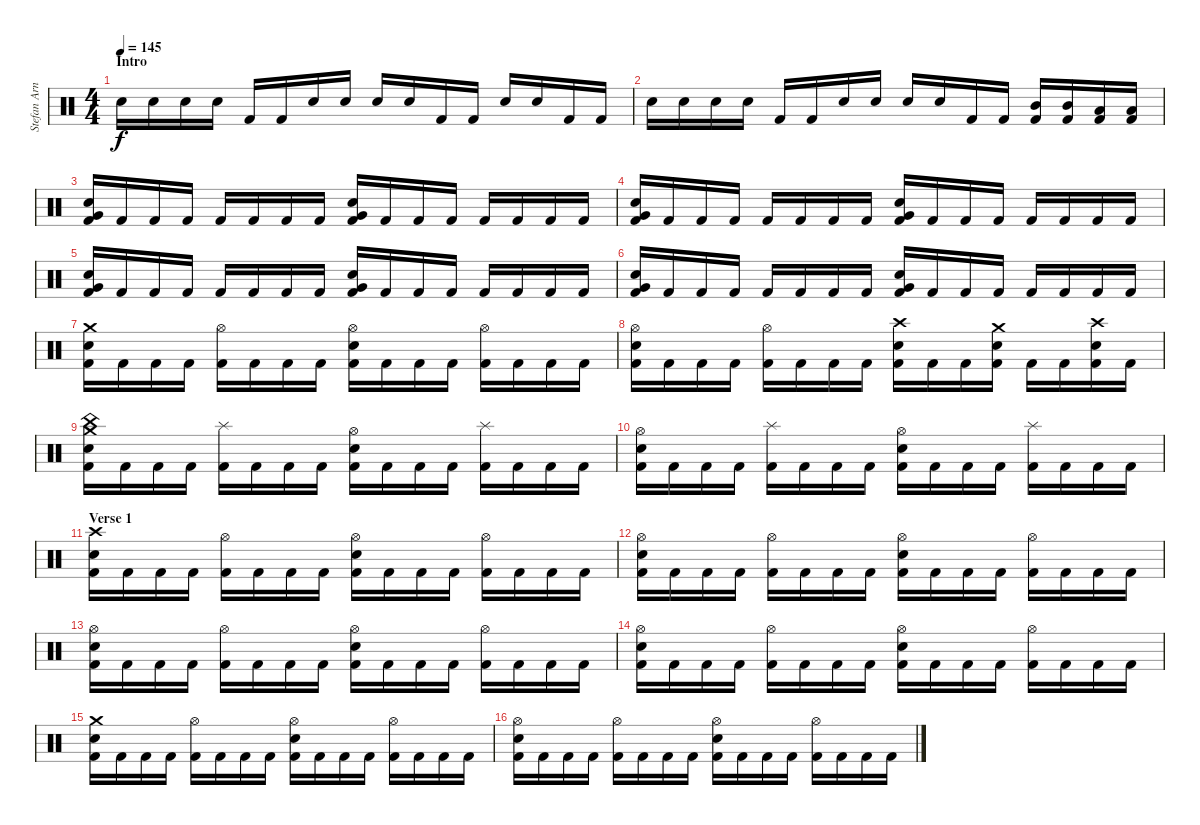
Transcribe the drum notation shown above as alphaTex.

\track ("Stefan Arnold" "Stefan Arn") {instrument percussion}
\staff {score}
\articulation defaults
\ts (4 4)
\section ("" "Intro")
\tempo 145
\clef neutral
\ks c "Electric Snare (hit)".16{dy f} "Electric Snare (hit)".16 "Electric Snare (hit)".16 "Electric Snare (hit)".16 "Kick (hit) 2".16 "Kick (hit) 2".16 "Electric Snare (hit)".16 "Electric Snare (hit)".16 "Electric Snare (hit)".16 "Electric Snare (hit)".16 "Kick (hit) 2".16 "Kick (hit) 2".16 "Electric Snare (hit)".16 "Electric Snare (hit)".16 "Kick (hit) 2".16 "Kick (hit) 2".16
|
"Electric Snare (hit)".16 "Electric Snare (hit)".16 "Electric Snare (hit)".16 "Electric Snare (hit)".16 "Kick (hit) 2".16 "Kick (hit) 2".16 "Electric Snare (hit)".16 "Electric Snare (hit)".16 "Electric Snare (hit)".16 "Electric Snare (hit)".16 "Kick (hit) 2".16 "Kick (hit) 2".16 ("Mid Tom (hit)" "Kick (hit) 2").16 ("Mid Tom (hit)" "Kick (hit) 2").16 ("Low Tom (hit)" "Kick (hit) 2").16 ("Low Tom (hit)" "Kick (hit) 2").16 |
("Very Low Tom (hit)" "Electric Snare (hit)" "Kick (hit) 2").16 "Kick (hit) 2".16 "Kick (hit) 2".16 "Kick (hit) 2".16 "Kick (hit) 2".16 "Kick (hit) 2".16 "Kick (hit) 2".16 "Kick (hit) 2".16 ("Very Low Tom (hit)" "Electric Snare (hit)" "Kick (hit) 2").16 "Kick (hit) 2".16 "Kick (hit) 2".16 "Kick (hit) 2".16 "Kick (hit) 2".16 "Kick (hit) 2".16 "Kick (hit) 2".16 "Kick (hit) 2".16 |
("Very Low Tom (hit)" "Electric Snare (hit)" "Kick (hit) 2").16 "Kick (hit) 2".16 "Kick (hit) 2".16 "Kick (hit) 2".16 "Kick (hit) 2".16 "Kick (hit) 2".16 "Kick (hit) 2".16 "Kick (hit) 2".16 ("Very Low Tom (hit)" "Electric Snare (hit)" "Kick (hit) 2").16 "Kick (hit) 2".16 "Kick (hit) 2".16 "Kick (hit) 2".16 "Kick (hit) 2".16 "Kick (hit) 2".16 "Kick (hit) 2".16 "Kick (hit) 2".16 |
("Very Low Tom (hit)" "Electric Snare (hit)" "Kick (hit) 2").16 "Kick (hit) 2".16 "Kick (hit) 2".16 "Kick (hit) 2".16 "Kick (hit) 2".16 "Kick (hit) 2".16 "Kick (hit) 2".16 "Kick (hit) 2".16 ("Very Low Tom (hit)" "Electric Snare (hit)" "Kick (hit) 2").16 "Kick (hit) 2".16 "Kick (hit) 2".16 "Kick (hit) 2".16 "Kick (hit) 2".16 "Kick (hit) 2".16 "Kick (hit) 2".16 "Kick (hit) 2".16 |
("Very Low Tom (hit)" "Electric Snare (hit)" "Kick (hit) 2").16 "Kick (hit) 2".16 "Kick (hit) 2".16 "Kick (hit) 2".16 "Kick (hit) 2".16 "Kick (hit) 2".16 "Kick (hit) 2".16 "Kick (hit) 2".16 ("Very Low Tom (hit)" "Electric Snare (hit)" "Kick (hit) 2").16 "Kick (hit) 2".16 "Kick (hit) 2".16 "Kick (hit) 2".16 "Kick (hit) 2".16 "Kick (hit) 2".16 "Kick (hit) 2".16 "Kick (hit) 2".16 |
("Crash medium (hit)" "Electric Snare (hit)" "Kick (hit) 2").16 "Kick (hit) 2".16 "Kick (hit) 2".16 "Kick (hit) 2".16 ("Hi-Hat (open)" "Kick (hit) 2").16 "Kick (hit) 2".16 "Kick (hit) 2".16 "Kick (hit) 2".16 ("Hi-Hat (open)" "Electric Snare (hit)" "Kick (hit) 2").16 "Kick (hit) 2".16 "Kick (hit) 2".16 "Kick (hit) 2".16 ("Hi-Hat (open)" "Kick (hit) 2").16 "Kick (hit) 2".16 "Kick (hit) 2".16 "Kick (hit) 2".16 |
("Hi-Hat (open)" "Electric Snare (hit)" "Kick (hit) 2").16 "Kick (hit) 2".16 "Kick (hit) 2".16 "Kick (hit) 2".16 ("Hi-Hat (open)" "Kick (hit) 2").16 "Kick (hit) 2".16 "Kick (hit) 2".16 "Kick (hit) 2".16 ("Crash high (hit)" "Electric Snare (hit)" "Kick (hit) 2").16 "Kick (hit) 2".16 "Kick (hit) 2".16 ("Crash medium (hit)" "Electric Snare (hit)" "Kick (hit) 2").16 "Kick (hit) 2".16 "Kick (hit) 2".16 ("Crash high (hit)" "Electric Snare (hit)" "Kick (hit) 2").16 "Kick (hit) 2".16 |
("Crash medium (hit)" "China (hit)" "Electric Snare (hit)" "Kick (hit) 2").16 "Kick (hit) 2".16 "Kick (hit) 2".16 "Kick (hit) 2".16 ("Splash (hit)" "Kick (hit) 2").16 "Kick (hit) 2".16 "Kick (hit) 2".16 "Kick (hit) 2".16 ("Hi-Hat (open)" "Electric Snare (hit)" "Kick (hit) 2").16 "Kick (hit) 2".16 "Kick (hit) 2".16 "Kick (hit) 2".16 ("Splash (hit)" "Kick (hit) 2").16 "Kick (hit) 2".16 "Kick (hit) 2".16 "Kick (hit) 2".16 |
("Hi-Hat (open)" "Electric Snare (hit)" "Kick (hit) 2").16 "Kick (hit) 2".16 "Kick (hit) 2".16 "Kick (hit) 2".16 ("Splash (hit)" "Kick (hit) 2").16 "Kick (hit) 2".16 "Kick (hit) 2".16 "Kick (hit) 2".16 ("Hi-Hat (open)" "Electric Snare (hit)" "Kick (hit) 2").16 "Kick (hit) 2".16 "Kick (hit) 2".16 "Kick (hit) 2".16 ("Splash (hit)" "Kick (hit) 2").16 "Kick (hit) 2".16 "Kick (hit) 2".16 "Kick (hit) 2".16 |
\section ("" "Verse 1")
("Crash high (hit)" "Electric Snare (hit)" "Kick (hit) 2").16 "Kick (hit) 2".16 "Kick (hit) 2".16 "Kick (hit) 2".16 ("Hi-Hat (open)" "Kick (hit) 2").16 "Kick (hit) 2".16 "Kick (hit) 2".16 "Kick (hit) 2".16 ("Hi-Hat (open)" "Electric Snare (hit)" "Kick (hit) 2").16 "Kick (hit) 2".16 "Kick (hit) 2".16 "Kick (hit) 2".16 ("Hi-Hat (open)" "Kick (hit) 2").16 "Kick (hit) 2".16 "Kick (hit) 2".16 "Kick (hit) 2".16 |
("Hi-Hat (open)" "Electric Snare (hit)" "Kick (hit) 2").16 "Kick (hit) 2".16 "Kick (hit) 2".16 "Kick (hit) 2".16 ("Hi-Hat (open)" "Kick (hit) 2").16 "Kick (hit) 2".16 "Kick (hit) 2".16 "Kick (hit) 2".16 ("Hi-Hat (open)" "Electric Snare (hit)" "Kick (hit) 2").16 "Kick (hit) 2".16 "Kick (hit) 2".16 "Kick (hit) 2".16 ("Hi-Hat (open)" "Kick (hit) 2").16 "Kick (hit) 2".16 "Kick (hit) 2".16 "Kick (hit) 2".16 |
("Hi-Hat (open)" "Electric Snare (hit)" "Kick (hit) 2").16 "Kick (hit) 2".16 "Kick (hit) 2".16 "Kick (hit) 2".16 ("Hi-Hat (open)" "Kick (hit) 2").16 "Kick (hit) 2".16 "Kick (hit) 2".16 "Kick (hit) 2".16 ("Hi-Hat (open)" "Electric Snare (hit)" "Kick (hit) 2").16 "Kick (hit) 2".16 "Kick (hit) 2".16 "Kick (hit) 2".16 ("Hi-Hat (open)" "Kick (hit) 2").16 "Kick (hit) 2".16 "Kick (hit) 2".16 "Kick (hit) 2".16 |
("Hi-Hat (open)" "Electric Snare (hit)" "Kick (hit) 2").16 "Kick (hit) 2".16 "Kick (hit) 2".16 "Kick (hit) 2".16 ("Hi-Hat (open)" "Kick (hit) 2").16 "Kick (hit) 2".16 "Kick (hit) 2".16 "Kick (hit) 2".16 ("Hi-Hat (open)" "Electric Snare (hit)" "Kick (hit) 2").16 "Kick (hit) 2".16 "Kick (hit) 2".16 "Kick (hit) 2".16 ("Hi-Hat (open)" "Kick (hit) 2").16 "Kick (hit) 2".16 "Kick (hit) 2".16 "Kick (hit) 2".16 |
("Crash medium (hit)" "Electric Snare (hit)" "Kick (hit) 2").16 "Kick (hit) 2".16 "Kick (hit) 2".16 "Kick (hit) 2".16 ("Hi-Hat (open)" "Kick (hit) 2").16 "Kick (hit) 2".16 "Kick (hit) 2".16 "Kick (hit) 2".16 ("Hi-Hat (open)" "Electric Snare (hit)" "Kick (hit) 2").16 "Kick (hit) 2".16 "Kick (hit) 2".16 "Kick (hit) 2".16 ("Hi-Hat (open)" "Kick (hit) 2").16 "Kick (hit) 2".16 "Kick (hit) 2".16 "Kick (hit) 2".16 |
("Hi-Hat (open)" "Electric Snare (hit)" "Kick (hit) 2").16 "Kick (hit) 2".16 "Kick (hit) 2".16 "Kick (hit) 2".16 ("Hi-Hat (open)" "Kick (hit) 2").16 "Kick (hit) 2".16 "Kick (hit) 2".16 "Kick (hit) 2".16 ("Hi-Hat (open)" "Electric Snare (hit)" "Kick (hit) 2").16 "Kick (hit) 2".16 "Kick (hit) 2".16 "Kick (hit) 2".16 ("Hi-Hat (open)" "Kick (hit) 2").16 "Kick (hit) 2".16 "Kick (hit) 2".16 "Kick (hit) 2".16
